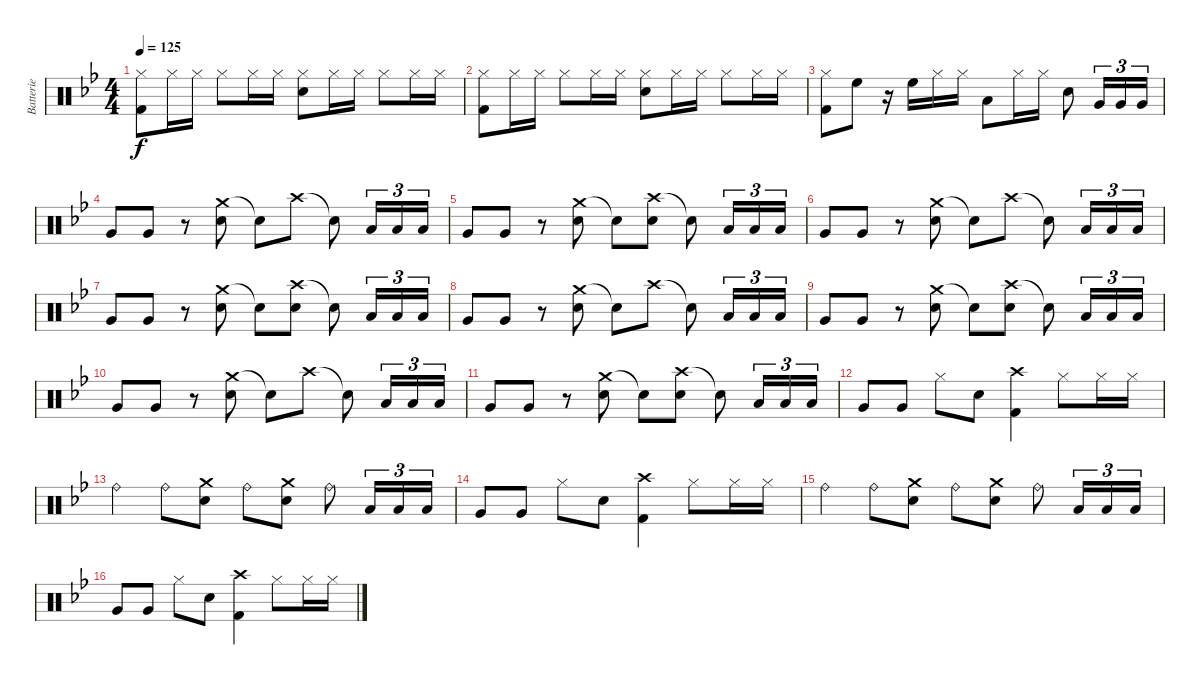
\track ("Batterie" "Batterie") {instrument percussion}
\staff {score}
\articulation defaults
\ts (4 4)
\tempo 125
\clef neutral
\ks bb
("Hi-Hat (closed)" "Kick (hit) 2").8{dy f} "Hi-Hat (closed)".16 "Hi-Hat (closed)".16 "Hi-Hat (closed)".8 "Hi-Hat (closed)".16 "Hi-Hat (closed)".16 ("Hi-Hat (closed)" "Electric Snare (hit)").8 "Hi-Hat (closed)".16 "Hi-Hat (closed)".16 "Hi-Hat (closed)".8 "Hi-Hat (closed)".16 "Hi-Hat (closed)".16 |
("Hi-Hat (closed)" "Kick (hit) 2").8 "Hi-Hat (closed)".16 "Hi-Hat (closed)".16 "Hi-Hat (closed)".8 "Hi-Hat (closed)".16 "Hi-Hat (closed)".16 ("Hi-Hat (closed)" "Electric Snare (hit)").8 "Hi-Hat (closed)".16 "Hi-Hat (closed)".16 "Hi-Hat (closed)".8 "Hi-Hat (closed)".16 "Hi-Hat (closed)".16 |
("Hi-Hat (closed)" "Kick (hit) 2").8 "High Floor Tom (hit)".8 r.16 "High Floor Tom (hit)".16 "Hi-Hat (closed)".16 "Hi-Hat (closed)".16 "Low Tom (hit)".8 "Hi-Hat (closed)".16 "Hi-Hat (closed)".16 "Electric Snare (hit)".8 "Very Low Tom (hit)".16{tu (3 2)} "Very Low Tom (hit)".16{tu (3 2)} "Very Low Tom (hit)".16{tu (3 2)} |
"Very Low Tom (hit)".8 "Very Low Tom (hit)".8 r.8 ("Crash medium (hit)" "Electric Snare (hit)").8 "Snare (hit)"{t}.8 "Crash high (hit)".8 "Snare (hit)"{t}.8 "Low Floor Tom (hit)".16{tu (3 2)} "Low Floor Tom (hit)".16{tu (3 2)} "Low Floor Tom (hit)".16{tu (3 2)} |
"Very Low Tom (hit)".8 "Very Low Tom (hit)".8 r.8 ("Crash medium (hit)" "Electric Snare (hit)").8 "Snare (hit)"{t}.8 ("Crash high (hit)" "Electric Snare (hit)").8 "Snare (hit)"{t}.8 "Low Floor Tom (hit)".16{tu (3 2)} "Low Floor Tom (hit)".16{tu (3 2)} "Low Floor Tom (hit)".16{tu (3 2)} |
"Very Low Tom (hit)".8 "Very Low Tom (hit)".8 r.8 ("Crash medium (hit)" "Electric Snare (hit)").8 "Snare (hit)"{t}.8 "Crash high (hit)".8 "Snare (hit)"{t}.8 "Low Floor Tom (hit)".16{tu (3 2)} "Low Floor Tom (hit)".16{tu (3 2)} "Low Floor Tom (hit)".16{tu (3 2)} |
"Very Low Tom (hit)".8 "Very Low Tom (hit)".8 r.8 ("Crash medium (hit)" "Electric Snare (hit)").8 "Snare (hit)"{t}.8 ("Crash high (hit)" "Electric Snare (hit)").8 "Snare (hit)"{t}.8 "Low Floor Tom (hit)".16{tu (3 2)} "Low Floor Tom (hit)".16{tu (3 2)} "Low Floor Tom (hit)".16{tu (3 2)} |
"Very Low Tom (hit)".8 "Very Low Tom (hit)".8 r.8 ("Crash medium (hit)" "Electric Snare (hit)").8 "Snare (hit)"{t}.8 "Crash high (hit)".8 "Snare (hit)"{t}.8 "Low Floor Tom (hit)".16{tu (3 2)} "Low Floor Tom (hit)".16{tu (3 2)} "Low Floor Tom (hit)".16{tu (3 2)} |
"Very Low Tom (hit)".8 "Very Low Tom (hit)".8 r.8 ("Crash medium (hit)" "Electric Snare (hit)").8 "Snare (hit)"{t}.8 ("Crash high (hit)" "Electric Snare (hit)").8 "Snare (hit)"{t}.8 "Low Floor Tom (hit)".16{tu (3 2)} "Low Floor Tom (hit)".16{tu (3 2)} "Low Floor Tom (hit)".16{tu (3 2)} |
"Very Low Tom (hit)".8 "Very Low Tom (hit)".8 r.8 ("Crash medium (hit)" "Electric Snare (hit)").8 "Snare (hit)"{t}.8 "Crash high (hit)".8 "Snare (hit)"{t}.8 "Low Floor Tom (hit)".16{tu (3 2)} "Low Floor Tom (hit)".16{tu (3 2)} "Low Floor Tom (hit)".16{tu (3 2)} |
"Very Low Tom (hit)".8 "Very Low Tom (hit)".8 r.8 ("Crash medium (hit)" "Electric Snare (hit)").8 "Snare (hit)"{t}.8 ("Crash high (hit)" "Electric Snare (hit)").8 "Snare (hit)"{t}.8 "Low Floor Tom (hit)".16{tu (3 2)} "Low Floor Tom (hit)".16{tu (3 2)} "Low Floor Tom (hit)".16{tu (3 2)} |
"Very Low Tom (hit)".8 "Very Low Tom (hit)".8 "Hi-Hat (closed)".8 "Electric Snare (hit)".8 ("Crash high (hit)" "Kick (hit) 2").4 "Hi-Hat (closed)".8 "Hi-Hat (closed)".16 "Hi-Hat (closed)".16 |
"Ride (bell)".4 "Ride (bell)".8 ("Crash medium (hit)" "Electric Snare (hit)").8 "Ride (bell)".8 ("Crash medium (hit)" "Electric Snare (hit)").8 "Ride (bell)".8 "Low Floor Tom (hit)".16{tu (3 2)} "Low Floor Tom (hit)".16{tu (3 2)} "Low Floor Tom (hit)".16{tu (3 2)} |
"Very Low Tom (hit)".8 "Very Low Tom (hit)".8 "Hi-Hat (closed)".8 "Electric Snare (hit)".8 ("Crash high (hit)" "Kick (hit) 2").4 "Hi-Hat (closed)".8 "Hi-Hat (closed)".16 "Hi-Hat (closed)".16 |
"Ride (bell)".4 "Ride (bell)".8 ("Crash medium (hit)" "Electric Snare (hit)").8 "Ride (bell)".8 ("Crash medium (hit)" "Electric Snare (hit)").8 "Ride (bell)".8 "Low Floor Tom (hit)".16{tu (3 2)} "Low Floor Tom (hit)".16{tu (3 2)} "Low Floor Tom (hit)".16{tu (3 2)} |
"Very Low Tom (hit)".8 "Very Low Tom (hit)".8 "Hi-Hat (closed)".8 "Electric Snare (hit)".8 ("Crash high (hit)" "Kick (hit) 2").4 "Hi-Hat (closed)".8 "Hi-Hat (closed)".16 "Hi-Hat (closed)".16
